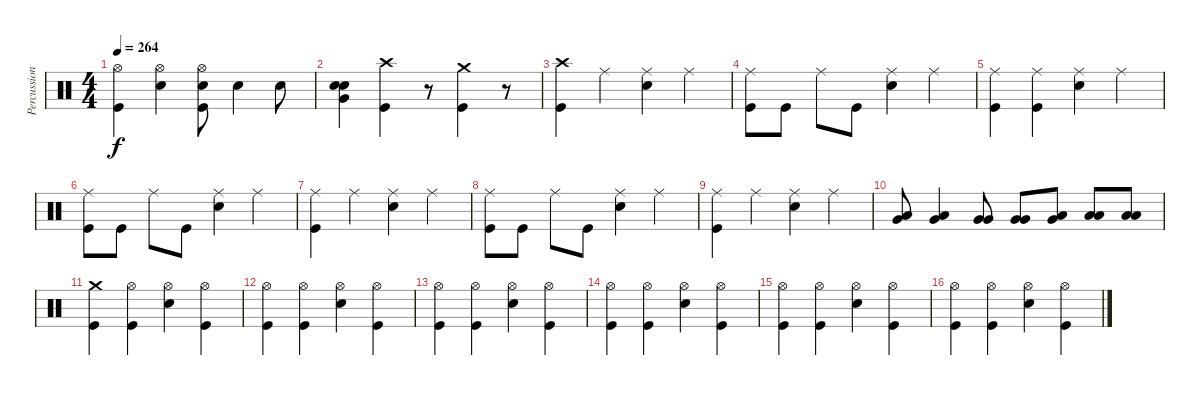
\track ("Percussion" "Percussion") {instrument percussion}
\staff {score}
\articulation defaults
\ts (4 4)
\tempo 264
\clef neutral
\ks c
("Hi-Hat (open)" "Kick (hit)").4{dy f} ("Hi-Hat (open)" "Snare (hit) 2").4 ("Hi-Hat (open)" "Snare (hit) 2" "Kick (hit)").8 "Snare (hit) 2".4 "Snare (hit) 2".8 |
("Very Low Tom (hit)" "Electric Snare (hit)" "Snare (hit) 2").4 ("Crash high (hit)" "Kick (hit)").4 r.8 ("Crash medium (hit)" "Kick (hit)").4 r.8 |
("Crash high (hit)" "Kick (hit)").4 "Ride (middle)".4 ("Ride (middle)" "Snare (hit) 2").4 "Ride (middle)".4 |
("Ride (middle)" "Kick (hit)").8 "Kick (hit)".8 "Ride (middle)".8 "Kick (hit)".8 ("Ride (middle)" "Snare (hit) 2").4 "Ride (middle)".4 |
("Ride (middle)" "Kick (hit)").4 ("Ride (middle)" "Kick (hit)").4 ("Ride (middle)" "Snare (hit) 2").4 "Ride (middle)".4 |
("Ride (middle)" "Kick (hit)").8 "Kick (hit)".8 "Ride (middle)".8 "Kick (hit)".8 ("Ride (middle)" "Snare (hit) 2").4 "Ride (middle)".4 |
("Ride (middle)" "Kick (hit)").4 "Ride (middle)".4 ("Ride (middle)" "Snare (hit) 2").4 "Ride (middle)".4 |
("Ride (middle)" "Kick (hit)").8 "Kick (hit)".8 "Ride (middle)".8 "Kick (hit)".8 ("Ride (middle)" "Snare (hit) 2").4 "Ride (middle)".4 |
("Ride (middle)" "Kick (hit)").4 "Ride (middle)".4 ("Ride (middle)" "Snare (hit) 2").4 "Ride (middle)".4 |
("Very Low Tom (hit)" "Low Tom (hit)").8 ("Very Low Tom (hit)" "Low Tom (hit)").4 ("Very Low Tom (hit)" "Very Low Tom (hit)").8 ("Very Low Tom (hit)" "Very Low Tom (hit)").8 ("Very Low Tom (hit)" "Low Floor Tom (hit)").8 ("Low Floor Tom (hit)" "Low Floor Tom (hit)").8 ("Low Floor Tom (hit)" "Low Floor Tom (hit)").8 |
("Crash medium (hit)" "Kick (hit)").4 ("Hi-Hat (open)" "Kick (hit)").4 ("Hi-Hat (open)" "Snare (hit) 2").4 ("Hi-Hat (open)" "Kick (hit)").4 |
("Hi-Hat (open)" "Kick (hit)").4 ("Hi-Hat (open)" "Kick (hit)").4 ("Hi-Hat (open)" "Snare (hit) 2").4 ("Hi-Hat (open)" "Kick (hit)").4 |
("Hi-Hat (open)" "Kick (hit)").4 ("Hi-Hat (open)" "Kick (hit)").4 ("Hi-Hat (open)" "Snare (hit) 2").4 ("Hi-Hat (open)" "Kick (hit)").4 |
("Hi-Hat (open)" "Kick (hit)").4 ("Hi-Hat (open)" "Kick (hit)").4 ("Hi-Hat (open)" "Snare (hit) 2").4 ("Hi-Hat (open)" "Kick (hit)").4 |
("Hi-Hat (open)" "Kick (hit)").4 ("Hi-Hat (open)" "Kick (hit)").4 ("Hi-Hat (open)" "Snare (hit) 2").4 ("Hi-Hat (open)" "Kick (hit)").4 |
("Hi-Hat (open)" "Kick (hit)").4 ("Hi-Hat (open)" "Kick (hit)").4 ("Hi-Hat (open)" "Snare (hit) 2").4 ("Hi-Hat (open)" "Kick (hit)").4
